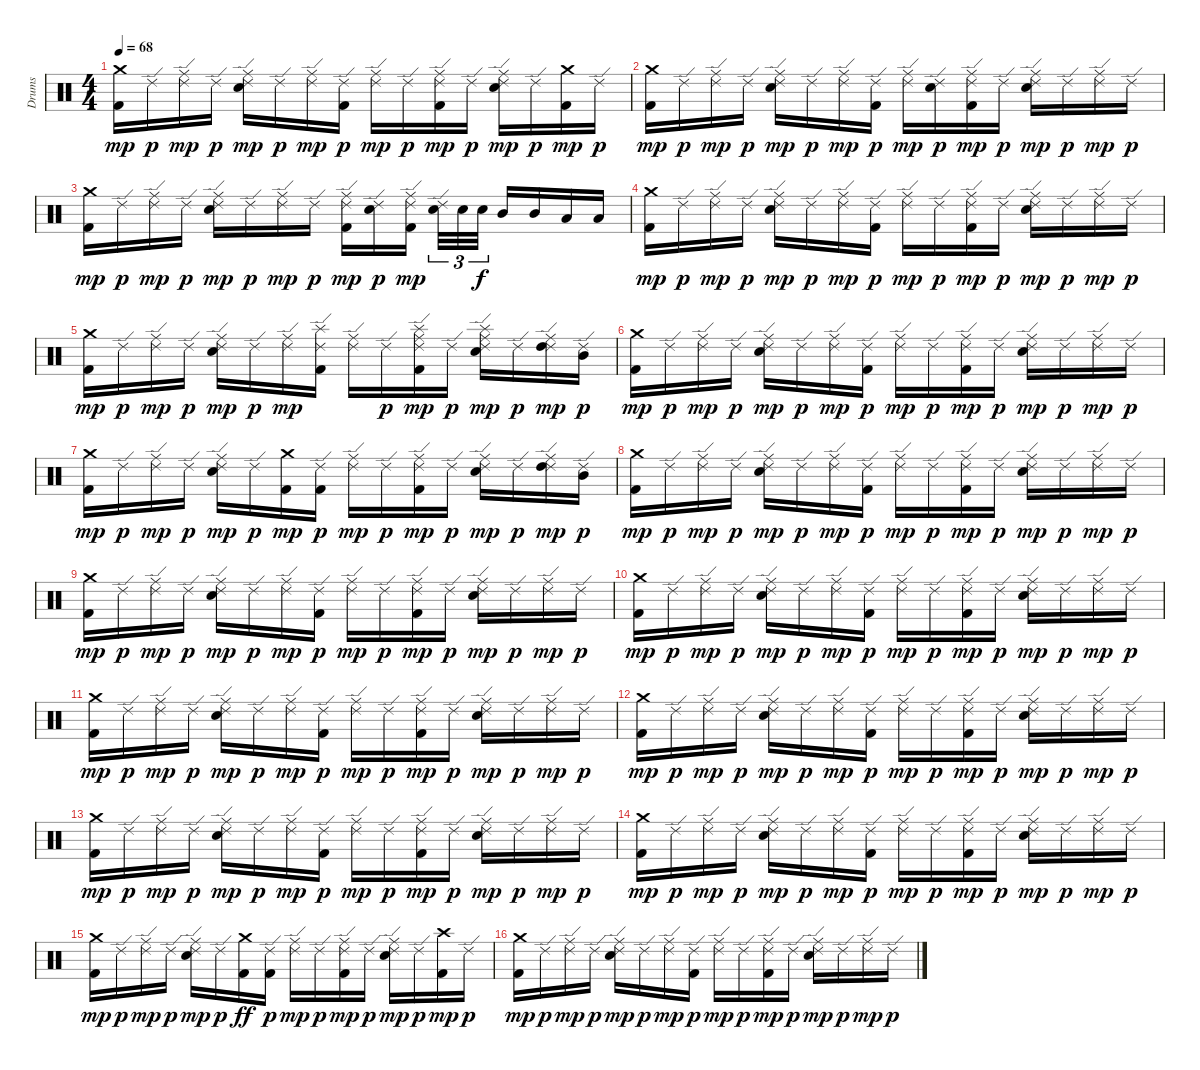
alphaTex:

\track ("Drums" "Drums") {instrument percussion}
\staff {score}
\articulation defaults
\ts (4 4)
\tempo 68
\clef neutral
\ks c
("Kick (hit) 2" "Crash medium (hit)").16{dy mp} "Ride (edge) 2".16{dy p} ("Ride (middle)" "Ride (edge) 2").16{dy mp} "Ride (edge) 2".16{dy p} ("Ride (middle)" "Ride (edge) 2" "Snare (hit) 2").16{dy mp} "Ride (edge) 2".16{dy p} ("Ride (middle)" "Ride (edge) 2").16{dy mp} ("Ride (edge) 2" "Kick (hit) 2").16{dy p} ("Ride (middle)" "Ride (edge) 2").16{dy mp} "Ride (edge) 2".16{dy p} ("Ride (middle)" "Ride (edge) 2" "Kick (hit) 2").16{dy mp} "Ride (edge) 2".16{dy p} ("Ride (middle)" "Ride (edge) 2" "Snare (hit) 2").16{dy mp} "Ride (edge) 2".16{dy p} ("Kick (hit) 2" "Crash medium (hit)").16{dy mp} "Ride (edge) 2".16{dy p} |
("Kick (hit) 2" "Crash medium (hit)").16{dy mp} "Ride (edge) 2".16{dy p} ("Ride (middle)" "Ride (edge) 2").16{dy mp} "Ride (edge) 2".16{dy p} ("Ride (middle)" "Ride (edge) 2" "Snare (hit) 2").16{dy mp} "Ride (edge) 2".16{dy p} ("Ride (middle)" "Ride (edge) 2").16{dy mp} ("Ride (edge) 2" "Kick (hit) 2").16{dy p} ("Ride (middle)" "Ride (edge) 2").16{dy mp} ("Ride (edge) 2" "Snare (hit) 2").16{dy p} ("Ride (middle)" "Ride (edge) 2" "Kick (hit) 2").16{dy mp} "Ride (edge) 2".16{dy p} ("Ride (middle)" "Ride (edge) 2" "Snare (hit) 2").16{dy mp} "Ride (edge) 2".16{dy p} ("Ride (middle)" "Ride (edge) 2").16{dy mp} "Ride (edge) 2".16{dy p} |
("Kick (hit) 2" "Crash medium (hit)").16{dy mp} "Ride (edge) 2".16{dy p} ("Ride (middle)" "Ride (edge) 2").16{dy mp} "Ride (edge) 2".16{dy p} ("Ride (middle)" "Ride (edge) 2" "Snare (hit) 2").16{dy mp} "Ride (edge) 2".16{dy p} ("Ride (middle)" "Ride (edge) 2").16{dy mp} "Ride (edge) 2".16{dy p} ("Ride (middle)" "Ride (edge) 2" "Kick (hit) 2").16{dy mp} ("Ride (edge) 2" "Snare (hit) 2").16{dy p} ("Ride (middle)" "Ride (edge) 2" "Kick (hit) 2").16{dy mp} ("Ride (edge) 2" "Snare (hit) 2").32{tu (3 2)} "Snare (hit) 2".32{tu (3 2)} "Snare (hit) 2".32{tu (3 2) dy f} "Mid Tom (hit)".16 "Mid Tom (hit)".16 "Low Tom (hit)".16 "Low Tom (hit)".16 |
("Kick (hit) 2" "Crash medium (hit)").16{dy mp} "Ride (edge) 2".16{dy p} ("Ride (middle)" "Ride (edge) 2").16{dy mp} "Ride (edge) 2".16{dy p} ("Ride (middle)" "Ride (edge) 2" "Snare (hit) 2").16{dy mp} "Ride (edge) 2".16{dy p} ("Ride (middle)" "Ride (edge) 2").16{dy mp} ("Ride (edge) 2" "Kick (hit) 2").16{dy p} ("Ride (middle)" "Ride (edge) 2").16{dy mp} "Ride (edge) 2".16{dy p} ("Ride (middle)" "Ride (edge) 2" "Kick (hit) 2").16{dy mp} "Ride (edge) 2".16{dy p} ("Ride (middle)" "Ride (edge) 2" "Snare (hit) 2").16{dy mp} "Ride (edge) 2".16{dy p} ("Ride (middle)" "Ride (edge) 2").16{dy mp} "Ride (edge) 2".16{dy p} |
("Kick (hit) 2" "Crash medium (hit)").16{dy mp} "Ride (edge) 2".16{dy p} ("Ride (middle)" "Ride (edge) 2").16{dy mp} "Ride (edge) 2".16{dy p} ("Ride (middle)" "Ride (edge) 2" "Snare (hit) 2").16{dy mp} "Ride (edge) 2".16{dy p} ("Ride (middle)" "Ride (edge) 2").16{dy mp} ("Ride (edge) 2" "Kick (hit) 2" "Splash (hit)").16 ("Ride (middle)" "Ride (edge) 2").16 "Ride (edge) 2".16{dy p} ("Ride (middle)" "Ride (edge) 2" "Kick (hit) 2" "Splash (hit)").16{dy mp} "Ride (edge) 2".16{dy p} ("Ride (middle)" "Ride (edge) 2" "Snare (hit) 2" "Splash (hit)").16{dy mp} "Ride (edge) 2".16{dy p} ("Ride (middle)" "Ride (edge) 2" "High Tom (hit)").16{dy mp} ("Ride (edge) 2" "Mid Tom (hit)").16{dy p} |
("Kick (hit) 2" "Crash medium (hit)").16{dy mp} "Ride (edge) 2".16{dy p} ("Ride (middle)" "Ride (edge) 2").16{dy mp} "Ride (edge) 2".16{dy p} ("Ride (middle)" "Ride (edge) 2" "Snare (hit) 2").16{dy mp} "Ride (edge) 2".16{dy p} ("Ride (middle)" "Ride (edge) 2").16{dy mp} ("Ride (edge) 2" "Kick (hit) 2").16{dy p} ("Ride (middle)" "Ride (edge) 2").16{dy mp} "Ride (edge) 2".16{dy p} ("Ride (middle)" "Ride (edge) 2" "Kick (hit) 2").16{dy mp} "Ride (edge) 2".16{dy p} ("Ride (middle)" "Ride (edge) 2" "Snare (hit) 2").16{dy mp} "Ride (edge) 2".16{dy p} ("Ride (middle)" "Ride (edge) 2").16{dy mp} "Ride (edge) 2".16{dy p} |
("Kick (hit) 2" "Crash medium (hit)").16{dy mp} "Ride (edge) 2".16{dy p} ("Ride (middle)" "Ride (edge) 2").16{dy mp} "Ride (edge) 2".16{dy p} ("Ride (middle)" "Ride (edge) 2" "Snare (hit) 2").16{dy mp} "Ride (edge) 2".16{dy p} ("Kick (hit) 2" "Crash medium (hit)").16{dy mp} ("Ride (edge) 2" "Kick (hit) 2").16{dy p} ("Ride (middle)" "Ride (edge) 2").16{dy mp} "Ride (edge) 2".16{dy p} ("Ride (middle)" "Ride (edge) 2" "Kick (hit) 2").16{dy mp} "Ride (edge) 2".16{dy p} ("Ride (middle)" "Ride (edge) 2" "Snare (hit) 2").16{dy mp} "Ride (edge) 2".16{dy p} ("Ride (middle)" "Ride (edge) 2" "High Tom (hit)").16{dy mp} ("Ride (edge) 2" "Mid Tom (hit)").16{dy p} |
("Kick (hit) 2" "Crash medium (hit)").16{dy mp} "Ride (edge) 2".16{dy p} ("Ride (middle)" "Ride (edge) 2").16{dy mp} "Ride (edge) 2".16{dy p} ("Ride (middle)" "Ride (edge) 2" "Snare (hit) 2").16{dy mp} "Ride (edge) 2".16{dy p} ("Ride (middle)" "Ride (edge) 2").16{dy mp} ("Ride (edge) 2" "Kick (hit) 2").16{dy p} ("Ride (middle)" "Ride (edge) 2").16{dy mp} "Ride (edge) 2".16{dy p} ("Ride (middle)" "Ride (edge) 2" "Kick (hit) 2").16{dy mp} "Ride (edge) 2".16{dy p} ("Ride (middle)" "Ride (edge) 2" "Snare (hit) 2").16{dy mp} "Ride (edge) 2".16{dy p} ("Ride (middle)" "Ride (edge) 2").16{dy mp} "Ride (edge) 2".16{dy p} |
("Kick (hit) 2" "Crash medium (hit)").16{dy mp} "Ride (edge) 2".16{dy p} ("Ride (middle)" "Ride (edge) 2").16{dy mp} "Ride (edge) 2".16{dy p} ("Ride (middle)" "Ride (edge) 2" "Snare (hit) 2").16{dy mp} "Ride (edge) 2".16{dy p} ("Ride (middle)" "Ride (edge) 2").16{dy mp} ("Ride (edge) 2" "Kick (hit) 2").16{dy p} ("Ride (middle)" "Ride (edge) 2").16{dy mp} "Ride (edge) 2".16{dy p} ("Ride (middle)" "Ride (edge) 2" "Kick (hit) 2").16{dy mp} "Ride (edge) 2".16{dy p} ("Ride (middle)" "Ride (edge) 2" "Snare (hit) 2").16{dy mp} "Ride (edge) 2".16{dy p} ("Ride (middle)" "Ride (edge) 2").16{dy mp} "Ride (edge) 2".16{dy p} |
("Kick (hit) 2" "Crash medium (hit)").16{dy mp} "Ride (edge) 2".16{dy p} ("Ride (middle)" "Ride (edge) 2").16{dy mp} "Ride (edge) 2".16{dy p} ("Ride (middle)" "Ride (edge) 2" "Snare (hit) 2").16{dy mp} "Ride (edge) 2".16{dy p} ("Ride (middle)" "Ride (edge) 2").16{dy mp} ("Ride (edge) 2" "Kick (hit) 2").16{dy p} ("Ride (middle)" "Ride (edge) 2").16{dy mp} "Ride (edge) 2".16{dy p} ("Ride (middle)" "Ride (edge) 2" "Kick (hit) 2").16{dy mp} "Ride (edge) 2".16{dy p} ("Ride (middle)" "Ride (edge) 2" "Snare (hit) 2").16{dy mp} "Ride (edge) 2".16{dy p} ("Ride (middle)" "Ride (edge) 2").16{dy mp} "Ride (edge) 2".16{dy p} |
("Kick (hit) 2" "Crash medium (hit)").16{dy mp} "Ride (edge) 2".16{dy p} ("Ride (middle)" "Ride (edge) 2").16{dy mp} "Ride (edge) 2".16{dy p} ("Ride (middle)" "Ride (edge) 2" "Snare (hit) 2").16{dy mp} "Ride (edge) 2".16{dy p} ("Ride (middle)" "Ride (edge) 2").16{dy mp} ("Ride (edge) 2" "Kick (hit) 2").16{dy p} ("Ride (middle)" "Ride (edge) 2").16{dy mp} "Ride (edge) 2".16{dy p} ("Ride (middle)" "Ride (edge) 2" "Kick (hit) 2").16{dy mp} "Ride (edge) 2".16{dy p} ("Ride (middle)" "Ride (edge) 2" "Snare (hit) 2").16{dy mp} "Ride (edge) 2".16{dy p} ("Ride (middle)" "Ride (edge) 2").16{dy mp} "Ride (edge) 2".16{dy p} |
("Kick (hit) 2" "Crash medium (hit)").16{dy mp} "Ride (edge) 2".16{dy p} ("Ride (middle)" "Ride (edge) 2").16{dy mp} "Ride (edge) 2".16{dy p} ("Ride (middle)" "Ride (edge) 2" "Snare (hit) 2").16{dy mp} "Ride (edge) 2".16{dy p} ("Ride (middle)" "Ride (edge) 2").16{dy mp} ("Ride (edge) 2" "Kick (hit) 2").16{dy p} ("Ride (middle)" "Ride (edge) 2").16{dy mp} "Ride (edge) 2".16{dy p} ("Ride (middle)" "Ride (edge) 2" "Kick (hit) 2").16{dy mp} "Ride (edge) 2".16{dy p} ("Ride (middle)" "Ride (edge) 2" "Snare (hit) 2").16{dy mp} "Ride (edge) 2".16{dy p} ("Ride (middle)" "Ride (edge) 2").16{dy mp} "Ride (edge) 2".16{dy p} |
("Kick (hit) 2" "Crash medium (hit)").16{dy mp} "Ride (edge) 2".16{dy p} ("Ride (middle)" "Ride (edge) 2").16{dy mp} "Ride (edge) 2".16{dy p} ("Ride (middle)" "Ride (edge) 2" "Snare (hit) 2").16{dy mp} "Ride (edge) 2".16{dy p} ("Ride (middle)" "Ride (edge) 2").16{dy mp} ("Ride (edge) 2" "Kick (hit) 2").16{dy p} ("Ride (middle)" "Ride (edge) 2").16{dy mp} "Ride (edge) 2".16{dy p} ("Ride (middle)" "Ride (edge) 2" "Kick (hit) 2").16{dy mp} "Ride (edge) 2".16{dy p} ("Ride (middle)" "Ride (edge) 2" "Snare (hit) 2").16{dy mp} "Ride (edge) 2".16{dy p} ("Ride (middle)" "Ride (edge) 2").16{dy mp} "Ride (edge) 2".16{dy p} |
("Kick (hit) 2" "Crash medium (hit)").16{dy mp} "Ride (edge) 2".16{dy p} ("Ride (middle)" "Ride (edge) 2").16{dy mp} "Ride (edge) 2".16{dy p} ("Ride (middle)" "Ride (edge) 2" "Snare (hit) 2").16{dy mp} "Ride (edge) 2".16{dy p} ("Ride (middle)" "Ride (edge) 2").16{dy mp} ("Ride (edge) 2" "Kick (hit) 2").16{dy p} ("Ride (middle)" "Ride (edge) 2").16{dy mp} "Ride (edge) 2".16{dy p} ("Ride (middle)" "Ride (edge) 2" "Kick (hit) 2").16{dy mp} "Ride (edge) 2".16{dy p} ("Ride (middle)" "Ride (edge) 2" "Snare (hit) 2").16{dy mp} "Ride (edge) 2".16{dy p} ("Ride (middle)" "Ride (edge) 2").16{dy mp} "Ride (edge) 2".16{dy p} |
("Kick (hit) 2" "Crash medium (hit)").16{dy mp} "Ride (edge) 2".16{dy p} ("Ride (middle)" "Ride (edge) 2").16{dy mp} "Ride (edge) 2".16{dy p} ("Ride (middle)" "Ride (edge) 2" "Snare (hit) 2").16{dy mp} "Ride (edge) 2".16{dy p} ("Crash medium (hit)" "Kick (hit) 2").16{dy ff} ("Ride (edge) 2" "Kick (hit) 2").16{dy p} ("Ride (middle)" "Ride (edge) 2").16{dy mp} "Ride (edge) 2".16{dy p} ("Ride (middle)" "Ride (edge) 2" "Kick (hit) 2").16{dy mp} "Ride (edge) 2".16{dy p} ("Ride (middle)" "Ride (edge) 2" "Snare (hit) 2").16{dy mp} "Ride (edge) 2".16{dy p} ("Kick (hit) 2" "Crash high (hit)").16{dy mp} "Ride (edge) 2".16{dy p} |
("Kick (hit) 2" "Crash medium (hit)").16{dy mp} "Ride (edge) 2".16{dy p} ("Ride (middle)" "Ride (edge) 2").16{dy mp} "Ride (edge) 2".16{dy p} ("Ride (middle)" "Ride (edge) 2" "Snare (hit) 2").16{dy mp} "Ride (edge) 2".16{dy p} ("Ride (middle)" "Ride (edge) 2").16{dy mp} ("Ride (edge) 2" "Kick (hit) 2").16{dy p} ("Ride (middle)" "Ride (edge) 2").16{dy mp} "Ride (edge) 2".16{dy p} ("Ride (middle)" "Ride (edge) 2" "Kick (hit) 2").16{dy mp} "Ride (edge) 2".16{dy p} ("Ride (middle)" "Ride (edge) 2" "Snare (hit) 2").16{dy mp} "Ride (edge) 2".16{dy p} ("Ride (middle)" "Ride (edge) 2").16{dy mp} "Ride (edge) 2".16{dy p}
